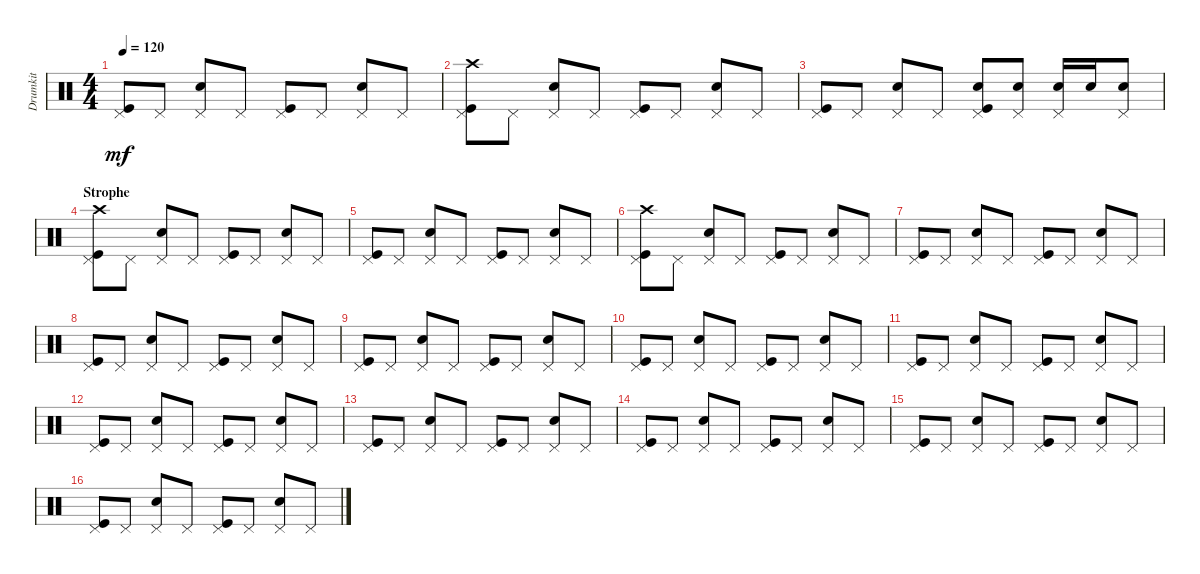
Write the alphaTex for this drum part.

\track ("Drumkit" "Drumkit") {instrument percussion}
\staff {score}
\articulation defaults
\ts (4 4)
\tempo 120
\clef neutral
\ks c
("Kick (hit)" "Pedal Hi-Hat (hit)").8{dy mf} "Pedal Hi-Hat (hit)".8 ("Pedal Hi-Hat (hit)" "Snare (hit) 2").8 "Pedal Hi-Hat (hit)".8 ("Kick (hit)" "Pedal Hi-Hat (hit)").8 "Pedal Hi-Hat (hit)".8 ("Pedal Hi-Hat (hit)" "Snare (hit) 2").8 "Pedal Hi-Hat (hit)".8 |
("Kick (hit)" "Crash high (hit)" "Pedal Hi-Hat (hit)").8 "Pedal Hi-Hat (hit)".8 ("Pedal Hi-Hat (hit)" "Snare (hit) 2").8 "Pedal Hi-Hat (hit)".8 ("Kick (hit)" "Pedal Hi-Hat (hit)").8 "Pedal Hi-Hat (hit)".8 ("Pedal Hi-Hat (hit)" "Snare (hit) 2").8 "Pedal Hi-Hat (hit)".8 |
("Kick (hit)" "Pedal Hi-Hat (hit)").8 "Pedal Hi-Hat (hit)".8 ("Pedal Hi-Hat (hit)" "Snare (hit) 2").8 "Pedal Hi-Hat (hit)".8 ("Kick (hit)" "Pedal Hi-Hat (hit)" "Snare (hit) 2").8 ("Pedal Hi-Hat (hit)" "Snare (hit) 2").8 ("Pedal Hi-Hat (hit)" "Snare (hit) 2").16 "Snare (hit) 2".16 ("Pedal Hi-Hat (hit)" "Snare (hit) 2").8 |
\section ("" "Strophe")
("Kick (hit)" "Crash high (hit)" "Pedal Hi-Hat (hit)").8 "Pedal Hi-Hat (hit)".8 ("Pedal Hi-Hat (hit)" "Snare (hit) 2").8 "Pedal Hi-Hat (hit)".8 ("Kick (hit)" "Pedal Hi-Hat (hit)").8 "Pedal Hi-Hat (hit)".8 ("Pedal Hi-Hat (hit)" "Snare (hit) 2").8 "Pedal Hi-Hat (hit)".8 |
("Kick (hit)" "Pedal Hi-Hat (hit)").8 "Pedal Hi-Hat (hit)".8 ("Pedal Hi-Hat (hit)" "Snare (hit) 2").8 "Pedal Hi-Hat (hit)".8 ("Kick (hit)" "Pedal Hi-Hat (hit)").8 "Pedal Hi-Hat (hit)".8 ("Pedal Hi-Hat (hit)" "Snare (hit) 2").8 "Pedal Hi-Hat (hit)".8 |
("Kick (hit)" "Crash high (hit)" "Pedal Hi-Hat (hit)").8 "Pedal Hi-Hat (hit)".8 ("Pedal Hi-Hat (hit)" "Snare (hit) 2").8 "Pedal Hi-Hat (hit)".8 ("Kick (hit)" "Pedal Hi-Hat (hit)").8 "Pedal Hi-Hat (hit)".8 ("Pedal Hi-Hat (hit)" "Snare (hit) 2").8 "Pedal Hi-Hat (hit)".8 |
("Kick (hit)" "Pedal Hi-Hat (hit)").8 "Pedal Hi-Hat (hit)".8 ("Pedal Hi-Hat (hit)" "Snare (hit) 2").8 "Pedal Hi-Hat (hit)".8 ("Kick (hit)" "Pedal Hi-Hat (hit)").8 "Pedal Hi-Hat (hit)".8 ("Pedal Hi-Hat (hit)" "Snare (hit) 2").8 "Pedal Hi-Hat (hit)".8 |
("Kick (hit)" "Pedal Hi-Hat (hit)").8 "Pedal Hi-Hat (hit)".8 ("Pedal Hi-Hat (hit)" "Snare (hit) 2").8 "Pedal Hi-Hat (hit)".8 ("Kick (hit)" "Pedal Hi-Hat (hit)").8 "Pedal Hi-Hat (hit)".8 ("Pedal Hi-Hat (hit)" "Snare (hit) 2").8 "Pedal Hi-Hat (hit)".8 |
("Kick (hit)" "Pedal Hi-Hat (hit)").8 "Pedal Hi-Hat (hit)".8 ("Pedal Hi-Hat (hit)" "Snare (hit) 2").8 "Pedal Hi-Hat (hit)".8 ("Kick (hit)" "Pedal Hi-Hat (hit)").8 "Pedal Hi-Hat (hit)".8 ("Pedal Hi-Hat (hit)" "Snare (hit) 2").8 "Pedal Hi-Hat (hit)".8 |
("Kick (hit)" "Pedal Hi-Hat (hit)").8 "Pedal Hi-Hat (hit)".8 ("Pedal Hi-Hat (hit)" "Snare (hit) 2").8 "Pedal Hi-Hat (hit)".8 ("Kick (hit)" "Pedal Hi-Hat (hit)").8 "Pedal Hi-Hat (hit)".8 ("Pedal Hi-Hat (hit)" "Snare (hit) 2").8 "Pedal Hi-Hat (hit)".8 |
("Kick (hit)" "Pedal Hi-Hat (hit)").8 "Pedal Hi-Hat (hit)".8 ("Pedal Hi-Hat (hit)" "Snare (hit) 2").8 "Pedal Hi-Hat (hit)".8 ("Kick (hit)" "Pedal Hi-Hat (hit)").8 "Pedal Hi-Hat (hit)".8 ("Pedal Hi-Hat (hit)" "Snare (hit) 2").8 "Pedal Hi-Hat (hit)".8 |
("Kick (hit)" "Pedal Hi-Hat (hit)").8 "Pedal Hi-Hat (hit)".8 ("Pedal Hi-Hat (hit)" "Snare (hit) 2").8 "Pedal Hi-Hat (hit)".8 ("Kick (hit)" "Pedal Hi-Hat (hit)").8 "Pedal Hi-Hat (hit)".8 ("Pedal Hi-Hat (hit)" "Snare (hit) 2").8 "Pedal Hi-Hat (hit)".8 |
("Kick (hit)" "Pedal Hi-Hat (hit)").8 "Pedal Hi-Hat (hit)".8 ("Pedal Hi-Hat (hit)" "Snare (hit) 2").8 "Pedal Hi-Hat (hit)".8 ("Kick (hit)" "Pedal Hi-Hat (hit)").8 "Pedal Hi-Hat (hit)".8 ("Pedal Hi-Hat (hit)" "Snare (hit) 2").8 "Pedal Hi-Hat (hit)".8 |
("Kick (hit)" "Pedal Hi-Hat (hit)").8 "Pedal Hi-Hat (hit)".8 ("Pedal Hi-Hat (hit)" "Snare (hit) 2").8 "Pedal Hi-Hat (hit)".8 ("Kick (hit)" "Pedal Hi-Hat (hit)").8 "Pedal Hi-Hat (hit)".8 ("Pedal Hi-Hat (hit)" "Snare (hit) 2").8 "Pedal Hi-Hat (hit)".8 |
("Kick (hit)" "Pedal Hi-Hat (hit)").8 "Pedal Hi-Hat (hit)".8 ("Pedal Hi-Hat (hit)" "Snare (hit) 2").8 "Pedal Hi-Hat (hit)".8 ("Kick (hit)" "Pedal Hi-Hat (hit)").8 "Pedal Hi-Hat (hit)".8 ("Pedal Hi-Hat (hit)" "Snare (hit) 2").8 "Pedal Hi-Hat (hit)".8 |
("Kick (hit)" "Pedal Hi-Hat (hit)").8 "Pedal Hi-Hat (hit)".8 ("Pedal Hi-Hat (hit)" "Snare (hit) 2").8 "Pedal Hi-Hat (hit)".8 ("Kick (hit)" "Pedal Hi-Hat (hit)").8 "Pedal Hi-Hat (hit)".8 ("Pedal Hi-Hat (hit)" "Snare (hit) 2").8 "Pedal Hi-Hat (hit)".8
